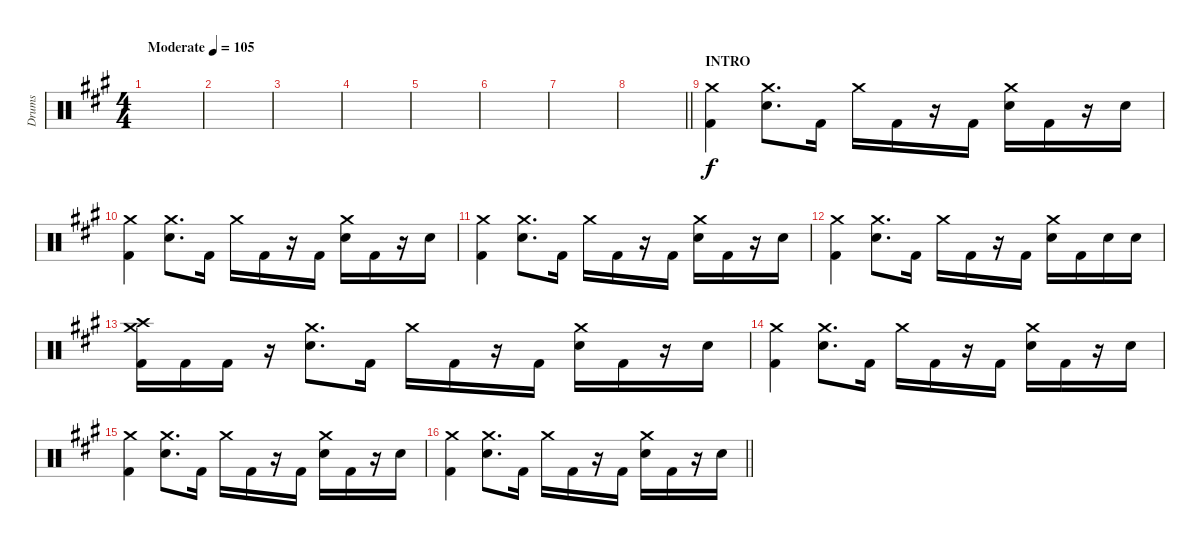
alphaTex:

\track ("Drums" "Drums") {instrument percussion}
\staff {score}
\articulation defaults
\ts (4 4)
\tempo (105 "Moderate")
\clef neutral
\ks f#minor
|
|
|
|
|
|
|
\barLineRight lightlight
|
\section ("" "INTRO")
("Crash medium (hit)" "Kick (hit) 2").4 ("Electric Snare (hit)" "Crash medium (hit)").8{d} "Kick (hit) 2".16 "Crash medium (hit)".16 "Kick (hit) 2".16 r.16 "Kick (hit) 2".16 ("Electric Snare (hit)" "Crash medium (hit)").16 "Kick (hit) 2".16 r.16 "Electric Snare (hit)".16 |
("Crash medium (hit)" "Kick (hit) 2").4 ("Electric Snare (hit)" "Crash medium (hit)").8{d} "Kick (hit) 2".16 "Crash medium (hit)".16 "Kick (hit) 2".16 r.16 "Kick (hit) 2".16 ("Electric Snare (hit)" "Crash medium (hit)").16 "Kick (hit) 2".16 r.16 "Electric Snare (hit)".16 |
("Crash medium (hit)" "Kick (hit) 2").4 ("Electric Snare (hit)" "Crash medium (hit)").8{d} "Kick (hit) 2".16 "Crash medium (hit)".16 "Kick (hit) 2".16 r.16 "Kick (hit) 2".16 ("Electric Snare (hit)" "Crash medium (hit)").16 "Kick (hit) 2".16 r.16 "Electric Snare (hit)".16 |
("Crash medium (hit)" "Kick (hit) 2").4 ("Electric Snare (hit)" "Crash medium (hit)").8{d} "Kick (hit) 2".16 "Crash medium (hit)".16 "Kick (hit) 2".16 r.16 "Kick (hit) 2".16 ("Electric Snare (hit)" "Crash medium (hit)").16 "Kick (hit) 2".16 "Electric Snare (hit)".16 "Electric Snare (hit)".16 |
("Crash high (hit)" "Crash medium (hit)" "Kick (hit) 2").16 "Kick (hit) 2".16 "Kick (hit) 2".16 r.16 ("Electric Snare (hit)" "Crash medium (hit)").8{d} "Kick (hit) 2".16 "Crash medium (hit)".16 "Kick (hit) 2".16 r.16 "Kick (hit) 2".16 ("Electric Snare (hit)" "Crash medium (hit)").16 "Kick (hit) 2".16 r.16 "Electric Snare (hit)".16 |
("Crash medium (hit)" "Kick (hit) 2").4 ("Electric Snare (hit)" "Crash medium (hit)").8{d} "Kick (hit) 2".16 "Crash medium (hit)".16 "Kick (hit) 2".16 r.16 "Kick (hit) 2".16 ("Electric Snare (hit)" "Crash medium (hit)").16 "Kick (hit) 2".16 r.16 "Electric Snare (hit)".16 |
("Crash medium (hit)" "Kick (hit) 2").4 ("Electric Snare (hit)" "Crash medium (hit)").8{d} "Kick (hit) 2".16 "Crash medium (hit)".16 "Kick (hit) 2".16 r.16 "Kick (hit) 2".16 ("Electric Snare (hit)" "Crash medium (hit)").16 "Kick (hit) 2".16 r.16 "Electric Snare (hit)".16 |
\barLineRight lightlight
("Crash medium (hit)" "Kick (hit) 2").4 ("Electric Snare (hit)" "Crash medium (hit)").8{d} "Kick (hit) 2".16 "Crash medium (hit)".16 "Kick (hit) 2".16 r.16 "Kick (hit) 2".16 ("Electric Snare (hit)" "Crash medium (hit)").16 "Kick (hit) 2".16 r.16 "Electric Snare (hit)".16
